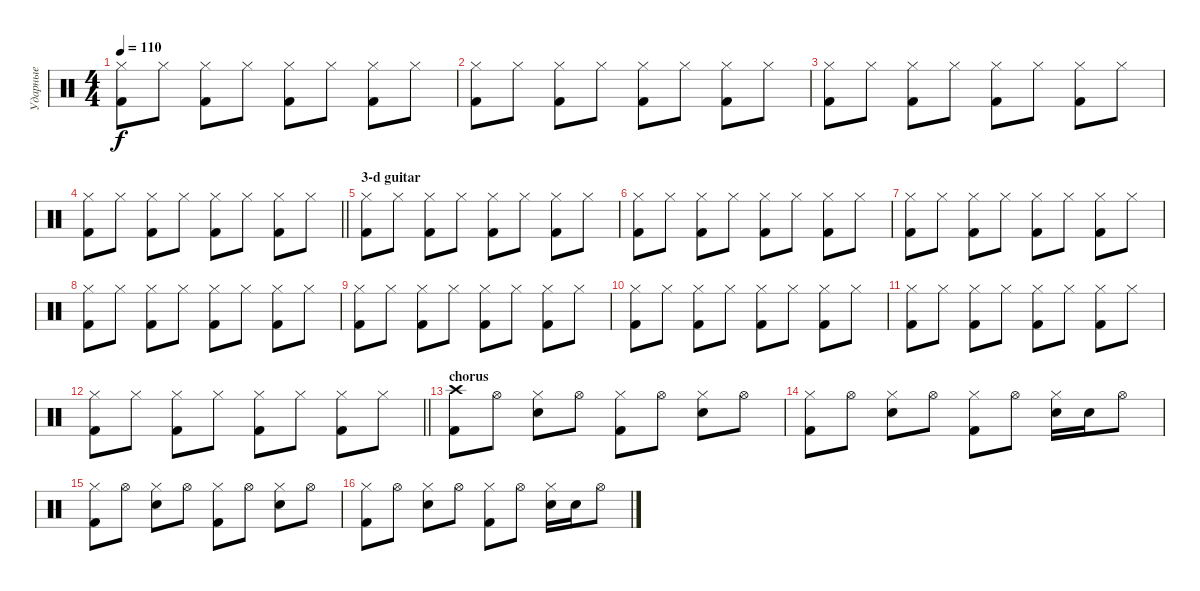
\track ("Ударные" "Ударные") {instrument percussion}
\staff {score}
\articulation defaults
\ts (4 4)
\tempo 110
\clef neutral
\ks c
("Hi-Hat (closed)" "Kick (hit) 2").8{dy f} "Hi-Hat (closed)".8 ("Hi-Hat (closed)" "Kick (hit) 2").8 "Hi-Hat (closed)".8 ("Hi-Hat (closed)" "Kick (hit) 2").8 "Hi-Hat (closed)".8 ("Hi-Hat (closed)" "Kick (hit) 2").8 "Hi-Hat (closed)".8 |
("Hi-Hat (closed)" "Kick (hit) 2").8 "Hi-Hat (closed)".8 ("Hi-Hat (closed)" "Kick (hit) 2").8 "Hi-Hat (closed)".8 ("Hi-Hat (closed)" "Kick (hit) 2").8 "Hi-Hat (closed)".8 ("Hi-Hat (closed)" "Kick (hit) 2").8 "Hi-Hat (closed)".8 |
("Hi-Hat (closed)" "Kick (hit) 2").8 "Hi-Hat (closed)".8 ("Hi-Hat (closed)" "Kick (hit) 2").8 "Hi-Hat (closed)".8 ("Hi-Hat (closed)" "Kick (hit) 2").8 "Hi-Hat (closed)".8 ("Hi-Hat (closed)" "Kick (hit) 2").8 "Hi-Hat (closed)".8 |
\barLineRight lightlight
("Hi-Hat (closed)" "Kick (hit) 2").8 "Hi-Hat (closed)".8 ("Hi-Hat (closed)" "Kick (hit) 2").8 "Hi-Hat (closed)".8 ("Hi-Hat (closed)" "Kick (hit) 2").8 "Hi-Hat (closed)".8 ("Hi-Hat (closed)" "Kick (hit) 2").8 "Hi-Hat (closed)".8 |
\section ("" "3-d guitar")
("Hi-Hat (closed)" "Kick (hit) 2").8 "Hi-Hat (closed)".8 ("Hi-Hat (closed)" "Kick (hit) 2").8 "Hi-Hat (closed)".8 ("Hi-Hat (closed)" "Kick (hit) 2").8 "Hi-Hat (closed)".8 ("Hi-Hat (closed)" "Kick (hit) 2").8 "Hi-Hat (closed)".8 |
("Hi-Hat (closed)" "Kick (hit) 2").8 "Hi-Hat (closed)".8 ("Hi-Hat (closed)" "Kick (hit) 2").8 "Hi-Hat (closed)".8 ("Hi-Hat (closed)" "Kick (hit) 2").8 "Hi-Hat (closed)".8 ("Hi-Hat (closed)" "Kick (hit) 2").8 "Hi-Hat (closed)".8 |
("Hi-Hat (closed)" "Kick (hit) 2").8 "Hi-Hat (closed)".8 ("Hi-Hat (closed)" "Kick (hit) 2").8 "Hi-Hat (closed)".8 ("Hi-Hat (closed)" "Kick (hit) 2").8 "Hi-Hat (closed)".8 ("Hi-Hat (closed)" "Kick (hit) 2").8 "Hi-Hat (closed)".8 |
("Hi-Hat (closed)" "Kick (hit) 2").8 "Hi-Hat (closed)".8 ("Hi-Hat (closed)" "Kick (hit) 2").8 "Hi-Hat (closed)".8 ("Hi-Hat (closed)" "Kick (hit) 2").8 "Hi-Hat (closed)".8 ("Hi-Hat (closed)" "Kick (hit) 2").8 "Hi-Hat (closed)".8 |
("Hi-Hat (closed)" "Kick (hit) 2").8 "Hi-Hat (closed)".8 ("Hi-Hat (closed)" "Kick (hit) 2").8 "Hi-Hat (closed)".8 ("Hi-Hat (closed)" "Kick (hit) 2").8 "Hi-Hat (closed)".8 ("Hi-Hat (closed)" "Kick (hit) 2").8 "Hi-Hat (closed)".8 |
("Hi-Hat (closed)" "Kick (hit) 2").8 "Hi-Hat (closed)".8 ("Hi-Hat (closed)" "Kick (hit) 2").8 "Hi-Hat (closed)".8 ("Hi-Hat (closed)" "Kick (hit) 2").8 "Hi-Hat (closed)".8 ("Hi-Hat (closed)" "Kick (hit) 2").8 "Hi-Hat (closed)".8 |
("Hi-Hat (closed)" "Kick (hit) 2").8 "Hi-Hat (closed)".8 ("Hi-Hat (closed)" "Kick (hit) 2").8 "Hi-Hat (closed)".8 ("Hi-Hat (closed)" "Kick (hit) 2").8 "Hi-Hat (closed)".8 ("Hi-Hat (closed)" "Kick (hit) 2").8 "Hi-Hat (closed)".8 |
\barLineRight lightlight
("Hi-Hat (closed)" "Kick (hit) 2").8 "Hi-Hat (closed)".8 ("Hi-Hat (closed)" "Kick (hit) 2").8 "Hi-Hat (closed)".8 ("Hi-Hat (closed)" "Kick (hit) 2").8 "Hi-Hat (closed)".8 ("Hi-Hat (closed)" "Kick (hit) 2").8 "Hi-Hat (closed)".8 |
\section ("" "chorus")
("Crash high (hit)" "Kick (hit) 2").8 "Hi-Hat (open)".8 ("Hi-Hat (closed)" "Snare (hit) 2").8 "Hi-Hat (open)".8 ("Hi-Hat (closed)" "Kick (hit) 2").8 "Hi-Hat (open)".8 ("Hi-Hat (closed)" "Snare (hit) 2").8 "Hi-Hat (open)".8 |
("Hi-Hat (closed)" "Kick (hit) 2").8 "Hi-Hat (open)".8 ("Hi-Hat (closed)" "Snare (hit) 2").8 "Hi-Hat (open)".8 ("Hi-Hat (closed)" "Kick (hit) 2").8 "Hi-Hat (open)".8 ("Hi-Hat (closed)" "Snare (hit) 2").16 "Snare (hit) 2".16 "Hi-Hat (open)".8 |
("Hi-Hat (closed)" "Kick (hit) 2").8 "Hi-Hat (open)".8 ("Hi-Hat (closed)" "Snare (hit) 2").8 "Hi-Hat (open)".8 ("Hi-Hat (closed)" "Kick (hit) 2").8 "Hi-Hat (open)".8 ("Hi-Hat (closed)" "Snare (hit) 2").8 "Hi-Hat (open)".8 |
("Hi-Hat (closed)" "Kick (hit) 2").8 "Hi-Hat (open)".8 ("Hi-Hat (closed)" "Snare (hit) 2").8 "Hi-Hat (open)".8 ("Hi-Hat (closed)" "Kick (hit) 2").8 "Hi-Hat (open)".8 ("Hi-Hat (closed)" "Snare (hit) 2").16 "Snare (hit) 2".16 "Hi-Hat (open)".8
